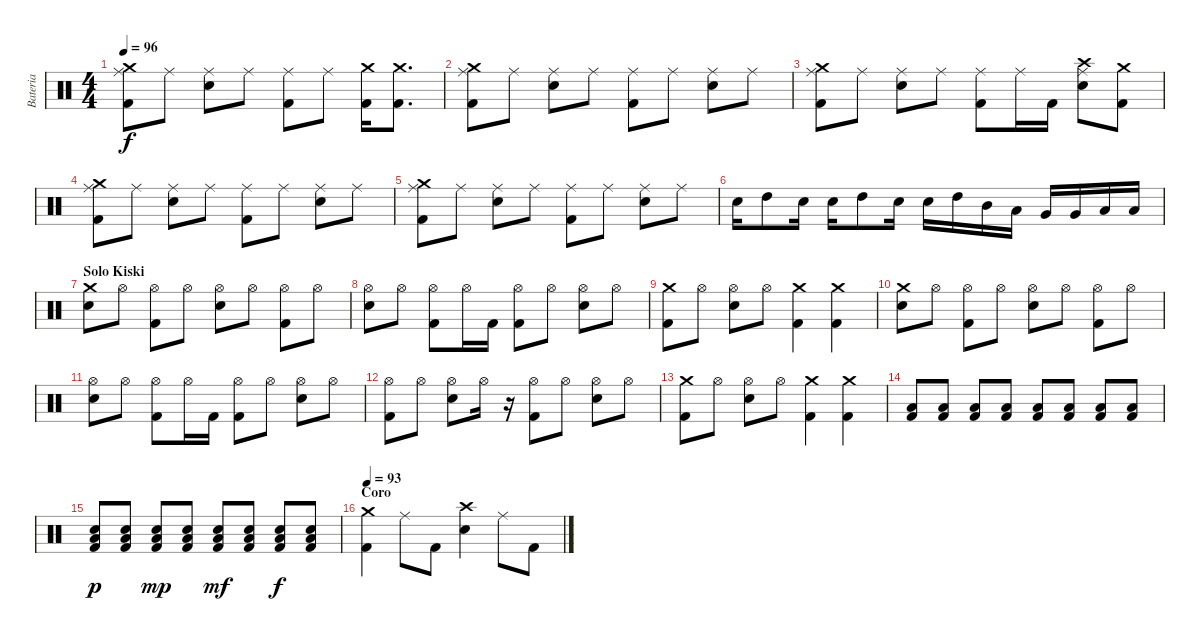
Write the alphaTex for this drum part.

\track ("Bateria" "Bateria") {instrument percussion}
\staff {score}
\articulation defaults
\ts (4 4)
\tempo 96
\clef neutral
\ks c
("Crash medium (hit)" "Kick (hit) 2" "Ride (middle)").8{dy f} "Ride (middle)".8 ("Ride (middle)" "Snare (hit) 2").8 "Ride (middle)".8 ("Ride (middle)" "Kick (hit) 2").8 "Ride (middle)".8 ("Crash medium (hit)" "Kick (hit) 2").16 ("Kick (hit) 2" "Crash medium (hit)").8{d} |
("Crash medium (hit)" "Kick (hit) 2" "Ride (middle)").8 "Ride (middle)".8 ("Ride (middle)" "Snare (hit) 2").8 "Ride (middle)".8 ("Ride (middle)" "Kick (hit) 2").8 "Ride (middle)".8 ("Ride (middle)" "Snare (hit) 2").8 "Ride (middle)".8 |
("Ride (middle)" "Kick (hit) 2" "Crash medium (hit)").8 "Ride (middle)".8 ("Ride (middle)" "Snare (hit) 2").8 "Ride (middle)".8 ("Ride (middle)" "Kick (hit) 2").8 "Ride (middle)".16 "Kick (hit) 2".16 ("Ride (middle)" "Crash high (hit)" "Snare (hit) 2").8 ("Kick (hit) 2" "Crash medium (hit)").8 |
("Crash medium (hit)" "Kick (hit) 2" "Ride (middle)").8 "Ride (middle)".8 ("Ride (middle)" "Snare (hit) 2").8 "Ride (middle)".8 ("Ride (middle)" "Kick (hit) 2").8 "Ride (middle)".8 ("Ride (middle)" "Snare (hit) 2").8 "Ride (middle)".8 |
("Crash medium (hit)" "Kick (hit) 2" "Ride (middle)").8 "Ride (middle)".8 ("Ride (middle)" "Snare (hit) 2").8 "Ride (middle)".8 ("Ride (middle)" "Kick (hit) 2").8 "Ride (middle)".8 ("Ride (middle)" "Snare (hit) 2").8 "Ride (middle)".8 |
"Snare (hit) 2".16 "High Tom (hit)".8 "Snare (hit) 2".16 "Snare (hit) 2".16 "High Tom (hit)".8 "Snare (hit) 2".16 "Snare (hit) 2".16 "High Tom (hit)".16 "Mid Tom (hit)".16 "Low Tom (hit)".16 "Very Low Tom (hit)".16 "Very Low Tom (hit)".16 "Low Floor Tom (hit)".16 "Low Floor Tom (hit)".16 |
\section ("" "Solo Kiski")
("Crash medium (hit)" "Snare (hit) 2").8 "Hi-Hat (open)".8 ("Kick (hit) 2" "Hi-Hat (open)").8 "Hi-Hat (open)".8 ("Hi-Hat (open)" "Snare (hit) 2").8 "Hi-Hat (open)".8 ("Kick (hit) 2" "Hi-Hat (open)").8 "Hi-Hat (open)".8 |
("Snare (hit) 2" "Hi-Hat (open)").8 "Hi-Hat (open)".8 ("Kick (hit) 2" "Hi-Hat (open)").8 "Hi-Hat (open)".16 "Kick (hit) 2".16 ("Hi-Hat (open)" "Kick (hit) 2").8 "Hi-Hat (open)".8 ("Snare (hit) 2" "Hi-Hat (open)").8 "Hi-Hat (open)".8 |
("Crash medium (hit)" "Kick (hit) 2").8 "Hi-Hat (open)".8 ("Hi-Hat (open)" "Snare (hit) 2").8 "Hi-Hat (open)".8 ("Crash medium (hit)" "Kick (hit) 2").4 ("Crash medium (hit)" "Kick (hit) 2").4 |
("Crash medium (hit)" "Snare (hit) 2").8 "Hi-Hat (open)".8 ("Kick (hit) 2" "Hi-Hat (open)").8 "Hi-Hat (open)".8 ("Hi-Hat (open)" "Snare (hit) 2").8 "Hi-Hat (open)".8 ("Kick (hit) 2" "Hi-Hat (open)").8 "Hi-Hat (open)".8 |
("Snare (hit) 2" "Hi-Hat (open)").8 "Hi-Hat (open)".8 ("Kick (hit) 2" "Hi-Hat (open)").8 "Hi-Hat (open)".16 "Kick (hit) 2".16 ("Hi-Hat (open)" "Kick (hit) 2").8 "Hi-Hat (open)".8 ("Snare (hit) 2" "Hi-Hat (open)").8 "Hi-Hat (open)".8 |
("Kick (hit) 2" "Hi-Hat (open)").8 "Hi-Hat (open)".8 ("Snare (hit) 2" "Hi-Hat (open)").8 "Hi-Hat (open)".16 r.16 ("Hi-Hat (open)" "Kick (hit) 2").8 "Hi-Hat (open)".8 ("Snare (hit) 2" "Hi-Hat (open)").8 "Hi-Hat (open)".8 |
("Crash medium (hit)" "Kick (hit) 2").8 "Hi-Hat (open)".8 ("Hi-Hat (open)" "Snare (hit) 2").8 "Hi-Hat (open)".8 ("Crash medium (hit)" "Kick (hit) 2").4 ("Crash medium (hit)" "Kick (hit) 2").4 |
("Low Floor Tom (hit)" "Kick (hit) 2").8 ("Low Floor Tom (hit)" "Kick (hit) 2").8 ("Low Floor Tom (hit)" "Kick (hit) 2").8 ("Low Floor Tom (hit)" "Kick (hit) 2").8 ("Low Floor Tom (hit)" "Kick (hit) 2").8 ("Low Floor Tom (hit)" "Kick (hit) 2").8 ("Low Floor Tom (hit)" "Kick (hit) 2").8 ("Low Floor Tom (hit)" "Kick (hit) 2").8 |
("Snare (hit) 2" "Kick (hit) 2" "Low Floor Tom (hit)").8{dy p} ("Snare (hit) 2" "Kick (hit) 2" "Low Floor Tom (hit)").8 ("Snare (hit) 2" "Kick (hit) 2" "Low Floor Tom (hit)").8{dy mp} ("Snare (hit) 2" "Kick (hit) 2" "Low Floor Tom (hit)").8 ("Snare (hit) 2" "Kick (hit) 2" "Low Floor Tom (hit)").8{dy mf} ("Snare (hit) 2" "Kick (hit) 2" "Low Floor Tom (hit)").8 ("Snare (hit) 2" "Kick (hit) 2" "Low Floor Tom (hit)").8{dy f} ("Snare (hit) 2" "Kick (hit) 2" "Low Floor Tom (hit)").8 |
\section ("" "Coro")
\tempo 93
("Kick (hit) 2" "Crash medium (hit)").4 "Ride (middle)".8 "Kick (hit) 2".8 ("Snare (hit) 2" "Crash high (hit)").4 "Ride (middle)".8 "Kick (hit) 2".8
